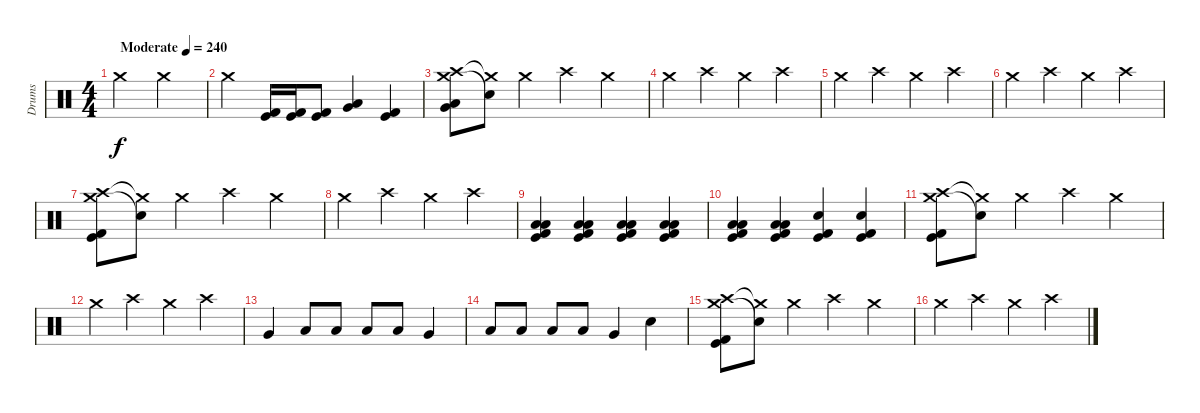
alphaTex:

\track ("Drums" "Drums") {instrument percussion}
\staff {score}
\articulation defaults
\ts (4 4)
\section ("" "")
\tempo (240 "Moderate")
\clef neutral
\ks c "Crash medium (hit)".2{dy f} "Crash medium (hit)".2
|
"Crash medium (hit)".4 ("Kick (hit)" "Kick (hit) 2").16 ("Kick (hit)" "Kick (hit) 2").16 ("Kick (hit)" "Kick (hit) 2").8 ("Low Floor Tom (hit)" "Very Low Tom (hit)").4 ("Kick (hit)" "Kick (hit) 2").4 |
("Crash high (hit)" "Crash medium (hit)" "Low Tom (hit)" "Very Low Tom (hit)").8 ("Crash medium (hit)"{t} "Snare (hit)"{t}).8 "Crash medium (hit)".4 "Crash high (hit)".4 "Crash medium (hit)".4 |
"Crash medium (hit)".4 "Crash high (hit)".4 "Crash medium (hit)".4 "Crash high (hit)".4 |
"Crash medium (hit)".4 "Crash high (hit)".4 "Crash medium (hit)".4 "Crash high (hit)".4 |
"Crash medium (hit)".4 "Crash high (hit)".4 "Crash medium (hit)".4 "Crash high (hit)".4 |
("Crash high (hit)" "Crash medium (hit)" "Kick (hit)" "Kick (hit) 2").8 ("Crash medium (hit)"{t} "Snare (hit)"{t}).8 "Crash medium (hit)".4 "Crash high (hit)".4 "Crash medium (hit)".4 |
"Crash medium (hit)".4 "Crash high (hit)".4 "Crash medium (hit)".4 "Crash high (hit)".4 |
("Low Floor Tom (hit)" "Low Tom (hit)" "Kick (hit)" "Kick (hit) 2").4 ("Low Floor Tom (hit)" "Low Tom (hit)" "Kick (hit)" "Kick (hit) 2").4 ("Low Floor Tom (hit)" "Low Tom (hit)" "Kick (hit)" "Kick (hit) 2").4 ("Low Floor Tom (hit)" "Low Tom (hit)" "Kick (hit)" "Kick (hit) 2").4 |
("Low Floor Tom (hit)" "Low Tom (hit)" "Kick (hit)" "Kick (hit) 2").4 ("Low Floor Tom (hit)" "Low Tom (hit)" "Kick (hit)" "Kick (hit) 2").4 ("Electric Snare (hit)" "Kick (hit)" "Kick (hit) 2").4 ("Electric Snare (hit)" "Kick (hit)" "Kick (hit) 2").4 |
("Crash high (hit)" "Crash medium (hit)" "Kick (hit)" "Kick (hit) 2").8 ("Crash medium (hit)"{t} "Snare (hit)"{t}).8 "Crash medium (hit)".4 "Crash high (hit)".4 "Crash medium (hit)".4 |
"Crash medium (hit)".4 "Crash high (hit)".4 "Crash medium (hit)".4 "Crash high (hit)".4 |
"Very Low Tom (hit)".4 "Low Tom (hit)".8 "Low Tom (hit)".8 "Low Tom (hit)".8 "Low Tom (hit)".8 "Very Low Tom (hit)".4 |
"Low Tom (hit)".8 "Low Tom (hit)".8 "Low Tom (hit)".8 "Low Tom (hit)".8 "Very Low Tom (hit)".4 "Electric Snare (hit)".4 |
("Crash high (hit)" "Crash medium (hit)" "Kick (hit)" "Kick (hit) 2").8 ("Crash medium (hit)"{t} "Snare (hit)"{t}).8 "Crash medium (hit)".4 "Crash high (hit)".4 "Crash medium (hit)".4 |
"Crash medium (hit)".4 "Crash high (hit)".4 "Crash medium (hit)".4 "Crash high (hit)".4
